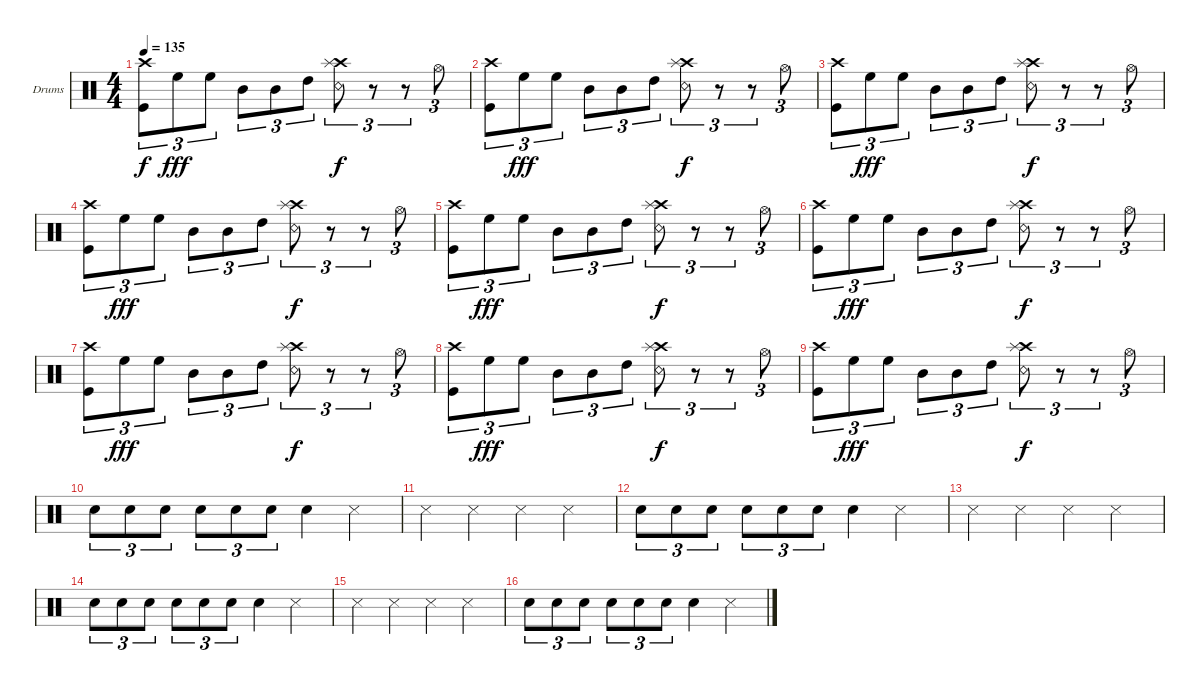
\bracketExtendMode groupsimilarinstruments
\firstSystemTrackNameOrientation horizontal
\otherSystemsTrackNameOrientation horizontal
\track ("Drumkit" "Drums") {instrument percussion}
\staff {score}
\articulation defaults
\ts (4 4)
\tempo 135
\clef neutral
\scale
0.333333
\ks c
("Kick (hit)" "Crash high (hit)").8{tu (3 2) dy f} "High Floor Tom (hit)".8{tu (3 2) dy fff} "High Floor Tom (hit)".8{tu (3 2)} "Mid Tom (hit)".8{tu (3 2)} "Mid Tom (hit)".8{tu (3 2)} "High Tom (hit)".8{tu (3 2)} ("Snare (rim shot)" "Crash high (hit)" "Splash (hit)").8{tu (3 2) dy f} r.8{tu (3 2)} r.8{tu (3 2)} "Hi-Hat (open)".8{tu (3 2)} |
\scale
0.333333 ("Kick (hit)" "Crash high (hit)").8{tu (3 2)} "High Floor Tom (hit)".8{tu (3 2) dy fff} "High Floor Tom (hit)".8{tu (3 2)} "Mid Tom (hit)".8{tu (3 2)} "Mid Tom (hit)".8{tu (3 2)} "High Tom (hit)".8{tu (3 2)} ("Snare (rim shot)" "Crash high (hit)" "Splash (hit)").8{tu (3 2) dy f} r.8{tu (3 2)} r.8{tu (3 2)} "Hi-Hat (open)".8{tu (3 2)} |
\scale
0.333333 ("Kick (hit)" "Crash high (hit)").8{tu (3 2)} "High Floor Tom (hit)".8{tu (3 2) dy fff} "High Floor Tom (hit)".8{tu (3 2)} "Mid Tom (hit)".8{tu (3 2)} "Mid Tom (hit)".8{tu (3 2)} "High Tom (hit)".8{tu (3 2)} ("Snare (rim shot)" "Crash high (hit)" "Splash (hit)").8{tu (3 2) dy f} r.8{tu (3 2)} r.8{tu (3 2)} "Hi-Hat (open)".8{tu (3 2)} |
\scale
0.333333 ("Kick (hit)" "Crash high (hit)").8{tu (3 2)} "High Floor Tom (hit)".8{tu (3 2) dy fff} "High Floor Tom (hit)".8{tu (3 2)} "Mid Tom (hit)".8{tu (3 2)} "Mid Tom (hit)".8{tu (3 2)} "High Tom (hit)".8{tu (3 2)} ("Snare (rim shot)" "Crash high (hit)" "Splash (hit)").8{tu (3 2) dy f} r.8{tu (3 2)} r.8{tu (3 2)} "Hi-Hat (open)".8{tu (3 2)} |
\scale
0.333333 ("Kick (hit)" "Crash high (hit)").8{tu (3 2)} "High Floor Tom (hit)".8{tu (3 2) dy fff} "High Floor Tom (hit)".8{tu (3 2)} "Mid Tom (hit)".8{tu (3 2)} "Mid Tom (hit)".8{tu (3 2)} "High Tom (hit)".8{tu (3 2)} ("Snare (rim shot)" "Crash high (hit)" "Splash (hit)").8{tu (3 2) dy f} r.8{tu (3 2)} r.8{tu (3 2)} "Hi-Hat (open)".8{tu (3 2)} |
\scale
0.333333 ("Kick (hit)" "Crash high (hit)").8{tu (3 2)} "High Floor Tom (hit)".8{tu (3 2) dy fff} "High Floor Tom (hit)".8{tu (3 2)} "Mid Tom (hit)".8{tu (3 2)} "Mid Tom (hit)".8{tu (3 2)} "High Tom (hit)".8{tu (3 2)} ("Snare (rim shot)" "Crash high (hit)" "Splash (hit)").8{tu (3 2) dy f} r.8{tu (3 2)} r.8{tu (3 2)} "Hi-Hat (open)".8{tu (3 2)} |
\scale
0.333333 ("Kick (hit)" "Crash high (hit)").8{tu (3 2)} "High Floor Tom (hit)".8{tu (3 2) dy fff} "High Floor Tom (hit)".8{tu (3 2)} "Mid Tom (hit)".8{tu (3 2)} "Mid Tom (hit)".8{tu (3 2)} "High Tom (hit)".8{tu (3 2)} ("Snare (rim shot)" "Crash high (hit)" "Splash (hit)").8{tu (3 2) dy f} r.8{tu (3 2)} r.8{tu (3 2)} "Hi-Hat (open)".8{tu (3 2)} |
\scale
0.333333 ("Kick (hit)" "Crash high (hit)").8{tu (3 2)} "High Floor Tom (hit)".8{tu (3 2) dy fff} "High Floor Tom (hit)".8{tu (3 2)} "Mid Tom (hit)".8{tu (3 2)} "Mid Tom (hit)".8{tu (3 2)} "High Tom (hit)".8{tu (3 2)} ("Snare (rim shot)" "Crash high (hit)" "Splash (hit)").8{tu (3 2) dy f} r.8{tu (3 2)} r.8{tu (3 2)} "Hi-Hat (open)".8{tu (3 2)} |
\scale
0.333333 ("Kick (hit)" "Crash high (hit)").8{tu (3 2)} "High Floor Tom (hit)".8{tu (3 2) dy fff} "High Floor Tom (hit)".8{tu (3 2)} "Mid Tom (hit)".8{tu (3 2)} "Mid Tom (hit)".8{tu (3 2)} "High Tom (hit)".8{tu (3 2)} ("Snare (rim shot)" "Crash high (hit)" "Splash (hit)").8{tu (3 2) dy f} r.8{tu (3 2)} r.8{tu (3 2)} "Hi-Hat (open)".8{tu (3 2)} |
\scale
0.333333 "Snare (hit) 2".8{tu (3 2)} "Snare (hit) 2".8{tu (3 2)} "Snare (hit) 2".8{tu (3 2)} "Snare (hit) 2".8{tu (3 2)} "Snare (hit) 2".8{tu (3 2)} "Snare (hit) 2".8{tu (3 2)} "Snare (hit) 2".4 "Snare (side stick) 3".4 |
\scale
0.333333 "Snare (side stick) 3".4 "Snare (side stick) 3".4 "Snare (side stick) 3".4 "Snare (side stick) 3".4 |
\scale
0.333333 "Snare (hit) 2".8{tu (3 2)} "Snare (hit) 2".8{tu (3 2)} "Snare (hit) 2".8{tu (3 2)} "Snare (hit) 2".8{tu (3 2)} "Snare (hit) 2".8{tu (3 2)} "Snare (hit) 2".8{tu (3 2)} "Snare (hit) 2".4 "Snare (side stick) 3".4 |
\scale
0.333333 "Snare (side stick) 3".4 "Snare (side stick) 3".4 "Snare (side stick) 3".4 "Snare (side stick) 3".4 |
\scale
0.333333 "Snare (hit) 2".8{tu (3 2)} "Snare (hit) 2".8{tu (3 2)} "Snare (hit) 2".8{tu (3 2)} "Snare (hit) 2".8{tu (3 2)} "Snare (hit) 2".8{tu (3 2)} "Snare (hit) 2".8{tu (3 2)} "Snare (hit) 2".4 "Snare (side stick) 3".4 |
\scale
0.333333 "Snare (side stick) 3".4 "Snare (side stick) 3".4 "Snare (side stick) 3".4 "Snare (side stick) 3".4 |
\scale
0.333333 "Snare (hit) 2".8{tu (3 2)} "Snare (hit) 2".8{tu (3 2)} "Snare (hit) 2".8{tu (3 2)} "Snare (hit) 2".8{tu (3 2)} "Snare (hit) 2".8{tu (3 2)} "Snare (hit) 2".8{tu (3 2)} "Snare (hit) 2".4 "Snare (side stick) 3".4
